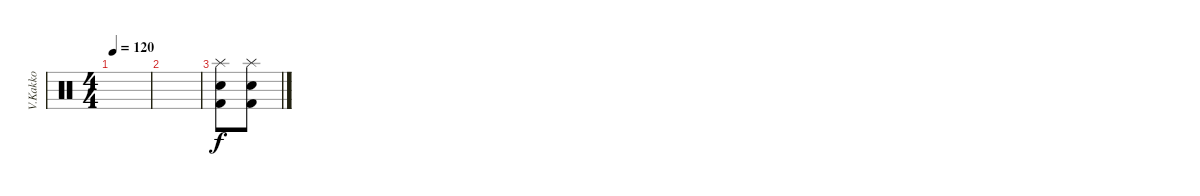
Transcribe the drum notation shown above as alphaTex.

\track ("V.Kakko" "V.Kakko") {instrument percussion}
\staff {score}
\articulation defaults
\ts (4 4)
\tempo 120
\clef neutral
\ks c
|
|
("Splash (hit)" "Snare (hit) 2" "Kick (hit) 2").8 ("Splash (hit)" "Snare (hit) 2" "Kick (hit) 2").8
